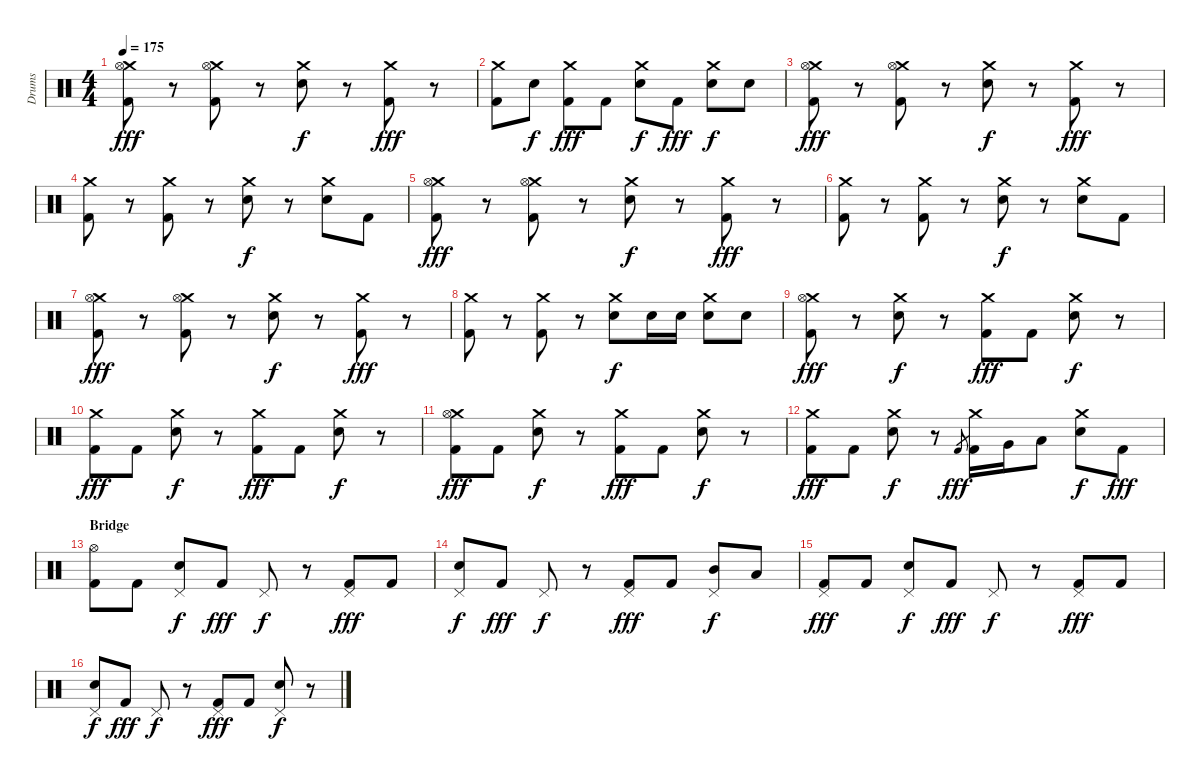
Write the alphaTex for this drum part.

\track ("Drums" "Drums") {instrument percussion}
\staff {score}
\articulation defaults
\ts (4 4)
\tempo 175
\clef neutral
\ks c
("Crash medium (hit)" "Hi-Hat (open)" "Kick (hit) 2").8{dy fff} r.8 ("Crash medium (hit)" "Hi-Hat (open)" "Kick (hit) 2").8 r.8 ("Crash medium (hit)" "Electric Snare (hit)").8{dy f} r.8 ("Crash medium (hit)" "Kick (hit) 2").8{dy fff} r.8 |
("Crash medium (hit)" "Kick (hit) 2").8 "Electric Snare (hit)".8{dy f} ("Crash medium (hit)" "Kick (hit) 2").8{dy fff} "Kick (hit) 2".8 ("Crash medium (hit)" "Electric Snare (hit)").8{dy f} "Kick (hit) 2".8{dy fff} ("Crash medium (hit)" "Electric Snare (hit)").8{dy f} "Electric Snare (hit)".8 |
("Crash medium (hit)" "Hi-Hat (open)" "Kick (hit) 2").8{dy fff} r.8 ("Crash medium (hit)" "Hi-Hat (open)" "Kick (hit) 2").8 r.8 ("Crash medium (hit)" "Electric Snare (hit)").8{dy f} r.8 ("Crash medium (hit)" "Kick (hit) 2").8{dy fff} r.8 |
("Crash medium (hit)" "Kick (hit) 2").8 r.8 ("Crash medium (hit)" "Kick (hit) 2").8 r.8 ("Crash medium (hit)" "Electric Snare (hit)").8{dy f} r.8 ("Crash medium (hit)" "Electric Snare (hit)").8 "Kick (hit) 2".8 |
("Crash medium (hit)" "Hi-Hat (open)" "Kick (hit) 2").8{dy fff} r.8 ("Crash medium (hit)" "Hi-Hat (open)" "Kick (hit) 2").8 r.8 ("Crash medium (hit)" "Electric Snare (hit)").8{dy f} r.8 ("Crash medium (hit)" "Kick (hit) 2").8{dy fff} r.8 |
("Crash medium (hit)" "Kick (hit) 2").8 r.8 ("Crash medium (hit)" "Kick (hit) 2").8 r.8 ("Crash medium (hit)" "Electric Snare (hit)").8{dy f} r.8 ("Crash medium (hit)" "Electric Snare (hit)").8 "Kick (hit) 2".8 |
("Crash medium (hit)" "Hi-Hat (open)" "Kick (hit) 2").8{dy fff} r.8 ("Crash medium (hit)" "Hi-Hat (open)" "Kick (hit) 2").8 r.8 ("Crash medium (hit)" "Electric Snare (hit)").8{dy f} r.8 ("Crash medium (hit)" "Kick (hit) 2").8{dy fff} r.8 |
("Crash medium (hit)" "Kick (hit) 2").8 r.8 ("Crash medium (hit)" "Kick (hit) 2").8 r.8 ("Crash medium (hit)" "Electric Snare (hit)").8{dy f} "Electric Snare (hit)".16 "Electric Snare (hit)".16 ("Crash medium (hit)" "Electric Snare (hit)").8 "Electric Snare (hit)".8 |
("Crash medium (hit)" "Hi-Hat (open)" "Kick (hit) 2").8{dy fff} r.8 ("Crash medium (hit)" "Electric Snare (hit)").8{dy f} r.8 ("Crash medium (hit)" "Kick (hit) 2").8{dy fff} "Kick (hit) 2".8 ("Crash medium (hit)" "Electric Snare (hit)").8{dy f} r.8 |
("Crash medium (hit)" "Kick (hit) 2").8{dy fff} "Kick (hit) 2".8 ("Crash medium (hit)" "Electric Snare (hit)").8{dy f} r.8 ("Crash medium (hit)" "Kick (hit) 2").8{dy fff} "Kick (hit) 2".8 ("Crash medium (hit)" "Electric Snare (hit)").8{dy f} r.8 |
("Crash medium (hit)" "Hi-Hat (open)" "Kick (hit) 2").8{dy fff} "Kick (hit) 2".8 ("Crash medium (hit)" "Electric Snare (hit)").8{dy f} r.8 ("Crash medium (hit)" "Kick (hit) 2").8{dy fff} "Kick (hit) 2".8 ("Crash medium (hit)" "Electric Snare (hit)").8{dy f} r.8 |
("Crash medium (hit)" "Kick (hit) 2").8{dy fff} "Kick (hit) 2".8 ("Crash medium (hit)" "Electric Snare (hit)").8{dy f} r.8 "Kick (hit) 2".8{gr dy fff} ("Crash medium (hit)" "Kick (hit) 2").16 "Very Low Tom (hit)".16 "Low Floor Tom (hit)".8 ("Crash medium (hit)" "Electric Snare (hit)").8{dy f} "Kick (hit) 2".8{dy fff} |
\section ("" "Bridge")
("Hi-Hat (open)" "Kick (hit) 2").8 "Kick (hit) 2".8 ("Pedal Hi-Hat (hit)" "Electric Snare (hit)").8{dy f} "Kick (hit) 2".8{dy fff} "Pedal Hi-Hat (hit)".8{dy f} r.8 ("Pedal Hi-Hat (hit)" "Kick (hit) 2").8{dy fff} "Kick (hit) 2".8 |
("Pedal Hi-Hat (hit)" "Electric Snare (hit)").8{dy f} "Kick (hit) 2".8{dy fff} "Pedal Hi-Hat (hit)".8{dy f} r.8 ("Pedal Hi-Hat (hit)" "Kick (hit) 2").8{dy fff} "Kick (hit) 2".8 ("Pedal Hi-Hat (hit)" "Mid Tom (hit)").8{dy f} "Low Tom (hit)".8 |
("Pedal Hi-Hat (hit)" "Kick (hit) 2").8{dy fff} "Kick (hit) 2".8 ("Pedal Hi-Hat (hit)" "Electric Snare (hit)").8{dy f} "Kick (hit) 2".8{dy fff} "Pedal Hi-Hat (hit)".8{dy f} r.8 ("Pedal Hi-Hat (hit)" "Kick (hit) 2").8{dy fff} "Kick (hit) 2".8 |
("Pedal Hi-Hat (hit)" "Electric Snare (hit)").8{dy f} "Kick (hit) 2".8{dy fff} "Pedal Hi-Hat (hit)".8{dy f} r.8 ("Pedal Hi-Hat (hit)" "Kick (hit) 2").8{dy fff} "Kick (hit) 2".8 ("Pedal Hi-Hat (hit)" "Electric Snare (hit)").8{dy f} r.8
